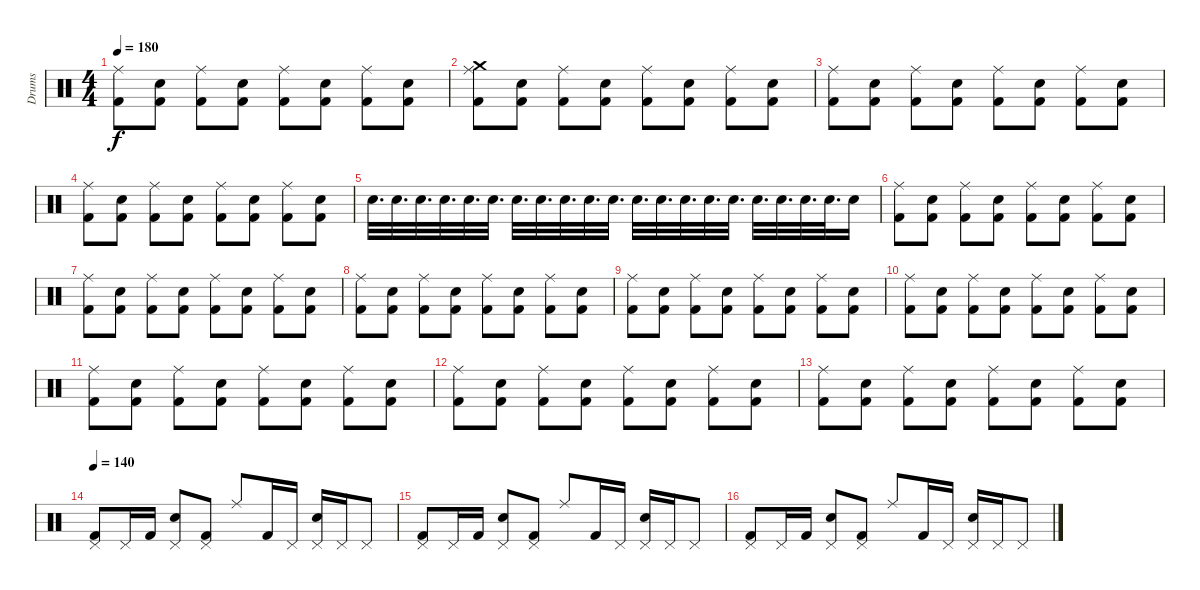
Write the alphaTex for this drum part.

\track ("Drums" "Drums") {instrument percussion}
\staff {score}
\articulation defaults
\ts (4 4)
\tempo 180
\clef neutral
\ks c
("Ride (middle)" "Kick (hit) 2").8{dy f} ("Kick (hit) 2" "Electric Snare (hit)").8 ("Ride (middle)" "Kick (hit) 2").8 ("Kick (hit) 2" "Electric Snare (hit)").8 ("Ride (middle)" "Kick (hit) 2").8 ("Kick (hit) 2" "Electric Snare (hit)").8 ("Ride (middle)" "Kick (hit) 2").8 ("Kick (hit) 2" "Electric Snare (hit)").8 |
("Crash medium (hit)" "Ride (middle)" "Kick (hit) 2").8 ("Kick (hit) 2" "Electric Snare (hit)").8 ("Ride (middle)" "Kick (hit) 2").8 ("Kick (hit) 2" "Electric Snare (hit)").8 ("Ride (middle)" "Kick (hit) 2").8 ("Kick (hit) 2" "Electric Snare (hit)").8 ("Ride (middle)" "Kick (hit) 2").8 ("Kick (hit) 2" "Electric Snare (hit)").8 |
("Ride (middle)" "Kick (hit) 2").8 ("Kick (hit) 2" "Electric Snare (hit)").8 ("Ride (middle)" "Kick (hit) 2").8 ("Kick (hit) 2" "Electric Snare (hit)").8 ("Ride (middle)" "Kick (hit) 2").8 ("Kick (hit) 2" "Electric Snare (hit)").8 ("Ride (middle)" "Kick (hit) 2").8 ("Kick (hit) 2" "Electric Snare (hit)").8 |
("Ride (middle)" "Kick (hit) 2").8 ("Kick (hit) 2" "Electric Snare (hit)").8 ("Ride (middle)" "Kick (hit) 2").8 ("Kick (hit) 2" "Electric Snare (hit)").8 ("Ride (middle)" "Kick (hit) 2").8 ("Kick (hit) 2" "Electric Snare (hit)").8 ("Ride (middle)" "Kick (hit) 2").8 ("Kick (hit) 2" "Electric Snare (hit)").8 |
"Electric Snare (hit)".32{d} "Electric Snare (hit)".32{d} "Electric Snare (hit)".32{d} "Electric Snare (hit)".32{d} "Electric Snare (hit)".32{d} "Electric Snare (hit)".32{d} "Electric Snare (hit)".32{d} "Electric Snare (hit)".32{d} "Electric Snare (hit)".32{d} "Electric Snare (hit)".32{d} "Snare (hit) 2".32{d} "Snare (hit) 2".32{d} "Snare (hit) 2".32{d} "Snare (hit) 2".32{d} "Snare (hit) 2".32{d} "Snare (hit) 2".32{d} "Snare (hit) 2".32{d} "Snare (hit) 2".32{d} "Snare (hit) 2".32{d} "Snare (hit) 2".32{d} "Snare (hit) 2".16 |
("Ride (middle)" "Kick (hit) 2").8 ("Kick (hit) 2" "Electric Snare (hit)").8 ("Ride (middle)" "Kick (hit) 2").8 ("Kick (hit) 2" "Electric Snare (hit)").8 ("Ride (middle)" "Kick (hit) 2").8 ("Kick (hit) 2" "Electric Snare (hit)").8 ("Ride (middle)" "Kick (hit) 2").8 ("Kick (hit) 2" "Electric Snare (hit)").8 |
("Ride (middle)" "Kick (hit) 2").8 ("Kick (hit) 2" "Electric Snare (hit)").8 ("Ride (middle)" "Kick (hit) 2").8 ("Kick (hit) 2" "Electric Snare (hit)").8 ("Ride (middle)" "Kick (hit) 2").8 ("Kick (hit) 2" "Electric Snare (hit)").8 ("Ride (middle)" "Kick (hit) 2").8 ("Kick (hit) 2" "Electric Snare (hit)").8 |
("Ride (middle)" "Kick (hit) 2").8 ("Kick (hit) 2" "Electric Snare (hit)").8 ("Ride (middle)" "Kick (hit) 2").8 ("Kick (hit) 2" "Electric Snare (hit)").8 ("Ride (middle)" "Kick (hit) 2").8 ("Kick (hit) 2" "Electric Snare (hit)").8 ("Ride (middle)" "Kick (hit) 2").8 ("Kick (hit) 2" "Electric Snare (hit)").8 |
("Ride (middle)" "Kick (hit) 2").8 ("Kick (hit) 2" "Electric Snare (hit)").8 ("Ride (middle)" "Kick (hit) 2").8 ("Kick (hit) 2" "Electric Snare (hit)").8 ("Ride (middle)" "Kick (hit) 2").8 ("Kick (hit) 2" "Electric Snare (hit)").8 ("Ride (middle)" "Kick (hit) 2").8 ("Kick (hit) 2" "Electric Snare (hit)").8 |
("Ride (middle)" "Kick (hit) 2").8 ("Kick (hit) 2" "Electric Snare (hit)").8 ("Ride (middle)" "Kick (hit) 2").8 ("Kick (hit) 2" "Electric Snare (hit)").8 ("Ride (middle)" "Kick (hit) 2").8 ("Kick (hit) 2" "Electric Snare (hit)").8 ("Ride (middle)" "Kick (hit) 2").8 ("Kick (hit) 2" "Electric Snare (hit)").8 |
("Ride (middle)" "Kick (hit) 2").8 ("Kick (hit) 2" "Electric Snare (hit)").8 ("Ride (middle)" "Kick (hit) 2").8 ("Kick (hit) 2" "Electric Snare (hit)").8 ("Ride (middle)" "Kick (hit) 2").8 ("Kick (hit) 2" "Electric Snare (hit)").8 ("Ride (middle)" "Kick (hit) 2").8 ("Kick (hit) 2" "Electric Snare (hit)").8 |
("Ride (middle)" "Kick (hit) 2").8 ("Kick (hit) 2" "Electric Snare (hit)").8 ("Ride (middle)" "Kick (hit) 2").8 ("Kick (hit) 2" "Electric Snare (hit)").8 ("Ride (middle)" "Kick (hit) 2").8 ("Kick (hit) 2" "Electric Snare (hit)").8 ("Ride (middle)" "Kick (hit) 2").8 ("Kick (hit) 2" "Electric Snare (hit)").8 |
("Ride (middle)" "Kick (hit) 2").8 ("Kick (hit) 2" "Electric Snare (hit)").8 ("Ride (middle)" "Kick (hit) 2").8 ("Kick (hit) 2" "Electric Snare (hit)").8 ("Ride (middle)" "Kick (hit) 2").8 ("Kick (hit) 2" "Electric Snare (hit)").8 ("Ride (middle)" "Kick (hit) 2").8 ("Kick (hit) 2" "Electric Snare (hit)").8 |
\tempo 140
("Pedal Hi-Hat (hit)" "Kick (hit) 2").8 "Pedal Hi-Hat (hit)".16 "Kick (hit) 2".16 ("Pedal Hi-Hat (hit)" "Electric Snare (hit)").8 ("Pedal Hi-Hat (hit)" "Kick (hit) 2").8 "Ride (middle)".8 "Kick (hit) 2".16 "Pedal Hi-Hat (hit)".16 ("Pedal Hi-Hat (hit)" "Electric Snare (hit)").16 "Pedal Hi-Hat (hit)".16 "Pedal Hi-Hat (hit)".8 |
("Pedal Hi-Hat (hit)" "Kick (hit) 2").8 "Pedal Hi-Hat (hit)".16 "Kick (hit) 2".16 ("Pedal Hi-Hat (hit)" "Electric Snare (hit)").8 ("Pedal Hi-Hat (hit)" "Kick (hit) 2").8 "Ride (middle)".8 "Kick (hit) 2".16 "Pedal Hi-Hat (hit)".16 ("Pedal Hi-Hat (hit)" "Electric Snare (hit)").16 "Pedal Hi-Hat (hit)".16 "Pedal Hi-Hat (hit)".8 |
("Pedal Hi-Hat (hit)" "Kick (hit) 2").8 "Pedal Hi-Hat (hit)".16 "Kick (hit) 2".16 ("Pedal Hi-Hat (hit)" "Electric Snare (hit)").8 ("Pedal Hi-Hat (hit)" "Kick (hit) 2").8 "Ride (middle)".8 "Kick (hit) 2".16 "Pedal Hi-Hat (hit)".16 ("Pedal Hi-Hat (hit)" "Electric Snare (hit)").16 "Pedal Hi-Hat (hit)".16 "Pedal Hi-Hat (hit)".8
